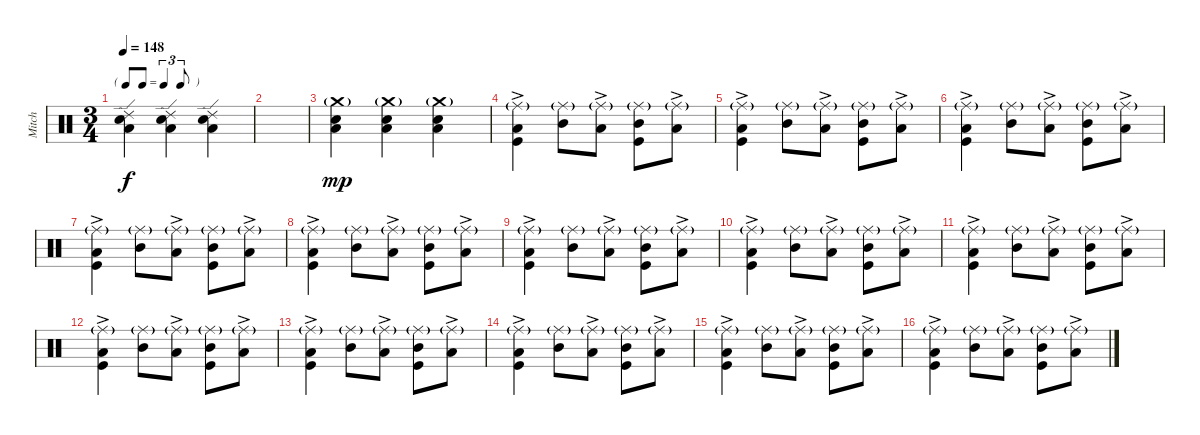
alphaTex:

\track ("Mitch" "Mitch") {instrument percussion}
\staff {score}
\articulation defaults
\ts (3 4)
\tf triplet8th
\tempo 148
\clef neutral
\ks c
("Snare (hit) 2" "Ride (edge) 2" "Low Tom (hit)").4{dy f} ("Snare (hit) 2" "Ride (edge) 2" "Low Tom (hit)").4 ("Snare (hit) 2" "Ride (edge) 2" "Low Tom (hit)").4 |
|
("Snare (hit) 2" "Crash medium (hit)"{g} "Low Tom (hit)").4{dy mp} ("Snare (hit) 2" "Crash medium (hit)"{g} "Low Tom (hit)").4 ("Snare (hit) 2" "Crash medium (hit)"{g} "Low Tom (hit)").4 |
("Low Floor Tom (hit)"{ac} "Kick (hit)" "Ride (middle)"{g}).4 ("Mid Tom (hit)" "Ride (middle)"{g}).8 ("Low Tom (hit)"{ac} "Ride (middle)"{g}).8 ("Mid Tom (hit)" "Kick (hit)" "Ride (middle)"{g}).8 ("Low Tom (hit)"{ac} "Ride (middle)"{g}).8 |
("Low Floor Tom (hit)"{ac} "Kick (hit)" "Ride (middle)"{g}).4 ("Mid Tom (hit)" "Ride (middle)"{g}).8 ("Low Tom (hit)"{ac} "Ride (middle)"{g}).8 ("Mid Tom (hit)" "Kick (hit)" "Ride (middle)"{g}).8 ("Low Tom (hit)"{ac} "Ride (middle)"{g}).8 |
("Low Floor Tom (hit)"{ac} "Kick (hit)" "Ride (middle)"{g}).4 ("Mid Tom (hit)" "Ride (middle)"{g}).8 ("Low Tom (hit)"{ac} "Ride (middle)"{g}).8 ("Mid Tom (hit)" "Kick (hit)" "Ride (middle)"{g}).8 ("Low Tom (hit)"{ac} "Ride (middle)"{g}).8 |
("Low Floor Tom (hit)"{ac} "Kick (hit)" "Ride (middle)"{g}).4 ("Mid Tom (hit)" "Ride (middle)"{g}).8 ("Low Tom (hit)"{ac} "Ride (middle)"{g}).8 ("Mid Tom (hit)" "Kick (hit)" "Ride (middle)"{g}).8 ("Low Tom (hit)"{ac} "Ride (middle)"{g}).8 |
("Low Floor Tom (hit)"{ac} "Kick (hit)" "Ride (middle)"{g}).4 ("Mid Tom (hit)" "Ride (middle)"{g}).8 ("Low Tom (hit)"{ac} "Ride (middle)"{g}).8 ("Mid Tom (hit)" "Kick (hit)" "Ride (middle)"{g}).8 ("Low Tom (hit)"{ac} "Ride (middle)"{g}).8 |
("Low Floor Tom (hit)"{ac} "Kick (hit)" "Ride (middle)"{g}).4 ("Mid Tom (hit)" "Ride (middle)"{g}).8 ("Low Tom (hit)"{ac} "Ride (middle)"{g}).8 ("Mid Tom (hit)" "Kick (hit)" "Ride (middle)"{g}).8 ("Low Tom (hit)"{ac} "Ride (middle)"{g}).8 |
("Low Floor Tom (hit)"{ac} "Kick (hit)" "Ride (middle)"{g}).4 ("Mid Tom (hit)" "Ride (middle)"{g}).8 ("Low Tom (hit)"{ac} "Ride (middle)"{g}).8 ("Mid Tom (hit)" "Kick (hit)" "Ride (middle)"{g}).8 ("Low Tom (hit)"{ac} "Ride (middle)"{g}).8 |
("Low Floor Tom (hit)"{ac} "Kick (hit)" "Ride (middle)"{g}).4 ("Mid Tom (hit)" "Ride (middle)"{g}).8 ("Low Tom (hit)"{ac} "Ride (middle)"{g}).8 ("Mid Tom (hit)" "Kick (hit)" "Ride (middle)"{g}).8 ("Low Tom (hit)"{ac} "Ride (middle)"{g}).8 |
("Low Floor Tom (hit)"{ac} "Kick (hit)" "Ride (middle)"{g}).4 ("Mid Tom (hit)" "Ride (middle)"{g}).8 ("Low Tom (hit)"{ac} "Ride (middle)"{g}).8 ("Mid Tom (hit)" "Kick (hit)" "Ride (middle)"{g}).8 ("Low Tom (hit)"{ac} "Ride (middle)"{g}).8 |
("Low Floor Tom (hit)"{ac} "Kick (hit)" "Ride (middle)"{g}).4 ("Mid Tom (hit)" "Ride (middle)"{g}).8 ("Low Tom (hit)"{ac} "Ride (middle)"{g}).8 ("Mid Tom (hit)" "Kick (hit)" "Ride (middle)"{g}).8 ("Low Tom (hit)"{ac} "Ride (middle)"{g}).8 |
("Low Floor Tom (hit)"{ac} "Kick (hit)" "Ride (middle)"{g}).4 ("Mid Tom (hit)" "Ride (middle)"{g}).8 ("Low Tom (hit)"{ac} "Ride (middle)"{g}).8 ("Mid Tom (hit)" "Kick (hit)" "Ride (middle)"{g}).8 ("Low Tom (hit)"{ac} "Ride (middle)"{g}).8 |
("Low Floor Tom (hit)"{ac} "Kick (hit)" "Ride (middle)"{g}).4 ("Mid Tom (hit)" "Ride (middle)"{g}).8 ("Low Tom (hit)"{ac} "Ride (middle)"{g}).8 ("Mid Tom (hit)" "Kick (hit)" "Ride (middle)"{g}).8 ("Low Tom (hit)"{ac} "Ride (middle)"{g}).8 |
("Low Floor Tom (hit)"{ac} "Kick (hit)" "Ride (middle)"{g}).4 ("Mid Tom (hit)" "Ride (middle)"{g}).8 ("Low Tom (hit)"{ac} "Ride (middle)"{g}).8 ("Mid Tom (hit)" "Kick (hit)" "Ride (middle)"{g}).8 ("Low Tom (hit)"{ac} "Ride (middle)"{g}).8
